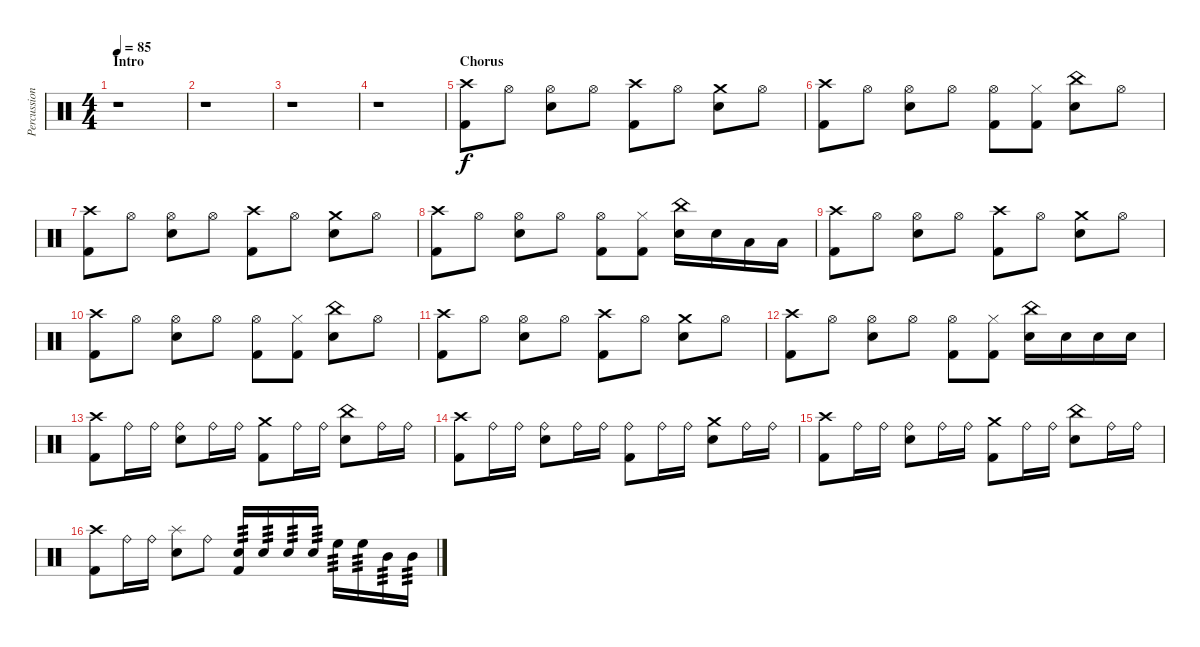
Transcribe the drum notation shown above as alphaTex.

\track ("Percussions" "Percussion") {instrument percussion}
\staff {score}
\articulation defaults
\ts (4 4)
\section ("" "Intro")
\tempo 85
\clef neutral
\ks c
r.1{dy f} |
r.1 |
r.1 |
r.1 |
\section ("" "Chorus")
("Crash high (hit)" "Kick (hit) 2").8 "Hi-Hat (open)".8 ("Hi-Hat (open)" "Snare (hit) 2").8 "Hi-Hat (open)".8 ("Crash high (hit)" "Kick (hit) 2").8 "Hi-Hat (open)".8 ("Crash medium (hit)" "Snare (hit) 2").8 "Hi-Hat (open)".8 |
("Crash high (hit)" "Kick (hit) 2").8 "Hi-Hat (open)".8 ("Hi-Hat (open)" "Snare (hit) 2").8 "Hi-Hat (open)".8 ("Hi-Hat (open)" "Kick (hit) 2").8 ("Hi-Hat (closed)" "Kick (hit) 2").8 ("China (hit)" "Snare (hit) 2").8 "Hi-Hat (open)".8 |
("Crash high (hit)" "Kick (hit) 2").8 "Hi-Hat (open)".8 ("Hi-Hat (open)" "Snare (hit) 2").8 "Hi-Hat (open)".8 ("Crash high (hit)" "Kick (hit) 2").8 "Hi-Hat (open)".8 ("Crash medium (hit)" "Snare (hit) 2").8 "Hi-Hat (open)".8 |
("Crash high (hit)" "Kick (hit) 2").8 "Hi-Hat (open)".8 ("Hi-Hat (open)" "Snare (hit) 2").8 "Hi-Hat (open)".8 ("Hi-Hat (open)" "Kick (hit) 2").8 ("Hi-Hat (closed)" "Kick (hit) 2").8 ("China (hit)" "Snare (hit) 2").16 "Snare (hit) 2".16 "Low Floor Tom (hit)".16 "Low Floor Tom (hit)".16 |
("Crash high (hit)" "Kick (hit) 2").8 "Hi-Hat (open)".8 ("Hi-Hat (open)" "Snare (hit) 2").8 "Hi-Hat (open)".8 ("Crash high (hit)" "Kick (hit) 2").8 "Hi-Hat (open)".8 ("Crash medium (hit)" "Snare (hit) 2").8 "Hi-Hat (open)".8 |
("Crash high (hit)" "Kick (hit) 2").8 "Hi-Hat (open)".8 ("Hi-Hat (open)" "Snare (hit) 2").8 "Hi-Hat (open)".8 ("Hi-Hat (open)" "Kick (hit) 2").8 ("Hi-Hat (closed)" "Kick (hit) 2").8 ("China (hit)" "Snare (hit) 2").8 "Hi-Hat (open)".8 |
("Crash high (hit)" "Kick (hit) 2").8 "Hi-Hat (open)".8 ("Hi-Hat (open)" "Snare (hit) 2").8 "Hi-Hat (open)".8 ("Crash high (hit)" "Kick (hit) 2").8 "Hi-Hat (open)".8 ("Crash medium (hit)" "Snare (hit) 2").8 "Hi-Hat (open)".8 |
("Crash high (hit)" "Kick (hit) 2").8 "Hi-Hat (open)".8 ("Hi-Hat (open)" "Snare (hit) 2").8 "Hi-Hat (open)".8 ("Hi-Hat (open)" "Kick (hit) 2").8 ("Hi-Hat (closed)" "Kick (hit) 2").8 ("China (hit)" "Snare (hit) 2").16 "Snare (hit) 2".16 "Snare (hit) 2".16 "Snare (hit) 2".16 |
("Crash high (hit)" "Kick (hit) 2").8 "Ride (bell)".16 "Ride (bell)".16 ("Ride (bell)" "Snare (hit) 2").8 "Ride (bell)".16 "Ride (bell)".16 ("Crash medium (hit)" "Kick (hit) 2").8 "Ride (bell)".16 "Ride (bell)".16 ("China (hit)" "Snare (hit) 2").8 "Ride (bell)".16 "Ride (bell)".16 |
("Crash high (hit)" "Kick (hit) 2").8 "Ride (bell)".16 "Ride (bell)".16 ("Ride (bell)" "Snare (hit) 2").8 "Ride (bell)".16 "Ride (bell)".16 ("Ride (bell)" "Kick (hit) 2").8 "Ride (bell)".16 "Ride (bell)".16 ("Crash medium (hit)" "Snare (hit) 2").8 "Ride (bell)".16 "Ride (bell)".16 |
("Crash high (hit)" "Kick (hit) 2").8 "Ride (bell)".16 "Ride (bell)".16 ("Ride (bell)" "Snare (hit) 2").8 "Ride (bell)".16 "Ride (bell)".16 ("Crash medium (hit)" "Kick (hit) 2").8 "Ride (bell)".16 "Ride (bell)".16 ("China (hit)" "Snare (hit) 2").8 "Ride (bell)".16 "Ride (bell)".16 |
("Crash high (hit)" "Kick (hit) 2").8 "Ride (bell)".16 "Ride (bell)".16 ("Splash (hit)" "Snare (hit) 2").8 "Ride (bell)".8 ("Snare (hit) 2" "Kick (hit) 2").16{tp 3} "Snare (hit) 2".16{tp 3} "Snare (hit) 2".16{tp 3} "Snare (hit) 2".16{tp 3} "High Floor Tom (hit)".16{tp 3} "High Floor Tom (hit)".16{tp 3} "Mid Tom (hit)".16{tp 3} "Mid Tom (hit)".16{tp 3}
